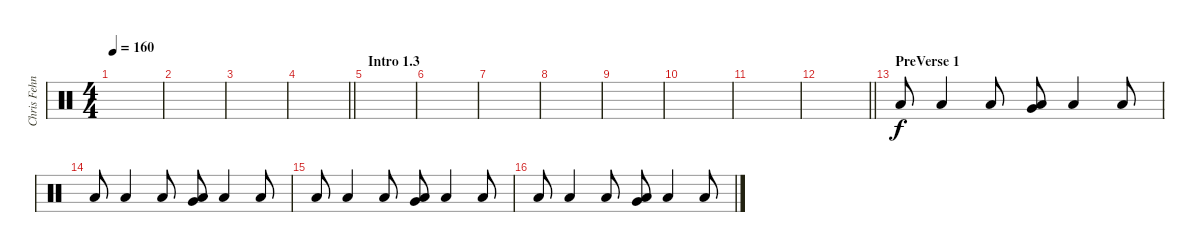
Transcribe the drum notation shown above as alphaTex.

\track ("Chris Fehn" "Chris Fehn") {instrument percussion}
\staff {score}
\articulation defaults
\ts (4 4)
\tempo 160
\clef neutral
\ks c
|
|
|
\barLineRight lightlight
|
\section ("" "Intro 1.3")
|
|
|
|
|
|
|
\barLineRight lightlight
|
\section ("" "PreVerse 1")
"Low Floor Tom (hit)".8 "Low Floor Tom (hit)".4 "Low Floor Tom (hit)".8 ("Very Low Tom (hit)" "Low Floor Tom (hit)").8 "Low Floor Tom (hit)".4 "Low Floor Tom (hit)".8 |
"Low Floor Tom (hit)".8 "Low Floor Tom (hit)".4 "Low Floor Tom (hit)".8 ("Very Low Tom (hit)" "Low Floor Tom (hit)").8 "Low Floor Tom (hit)".4 "Low Floor Tom (hit)".8 |
"Low Floor Tom (hit)".8 "Low Floor Tom (hit)".4 "Low Floor Tom (hit)".8 ("Very Low Tom (hit)" "Low Floor Tom (hit)").8 "Low Floor Tom (hit)".4 "Low Floor Tom (hit)".8 |
"Low Floor Tom (hit)".8 "Low Floor Tom (hit)".4 "Low Floor Tom (hit)".8 ("Very Low Tom (hit)" "Low Floor Tom (hit)").8 "Low Floor Tom (hit)".4 "Low Floor Tom (hit)".8
